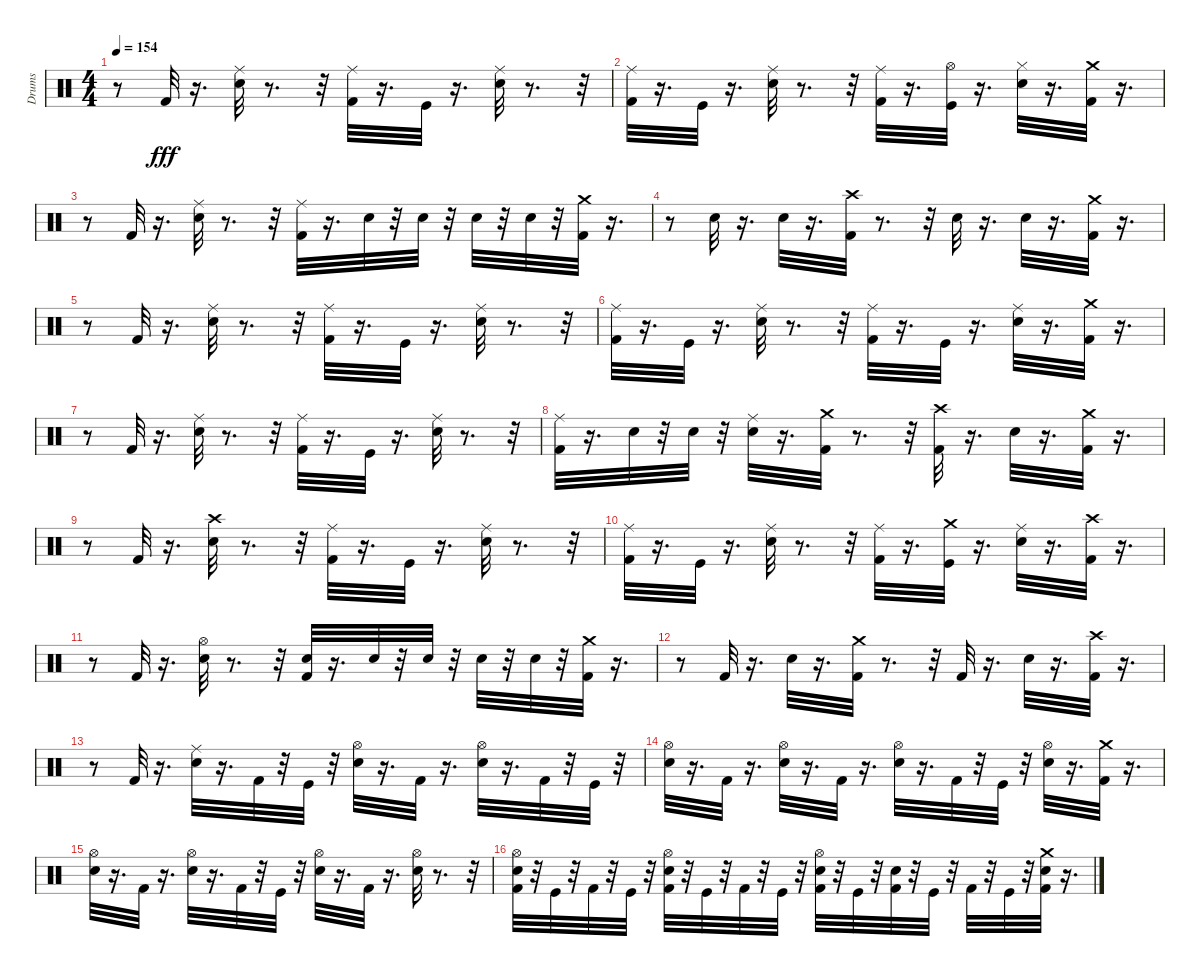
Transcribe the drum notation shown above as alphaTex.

\track ("Drums" "Drums") {instrument percussion}
\staff {score}
\articulation defaults
\ts (4 4)
\tempo 154
\clef neutral
\ks c
r.8{dy fff} "Kick (hit) 2".32 r.16{d} ("Snare (hit) 2" "Ride (middle)").32 r.8{d} r.32 ("Kick (hit) 2" "Ride (middle)").32 r.16{d} "Kick (hit)".32 r.16{d} ("Snare (hit) 2" "Ride (middle)").32 r.8{d} r.32 |
("Kick (hit) 2" "Ride (middle)").32 r.16{d} "Kick (hit)".32 r.16{d} ("Snare (hit) 2" "Ride (middle)").32 r.8{d} r.32 ("Kick (hit) 2" "Ride (middle)").32 r.16{d} ("Kick (hit)" "Hi-Hat (open)").32 r.16{d} ("Snare (hit) 2" "Hi-Hat (closed)").32 r.16{d} ("Kick (hit) 2" "Crash medium (hit)").32 r.16{d} |
r.8 "Kick (hit) 2".32 r.16{d} ("Snare (hit) 2" "Ride (middle)").32 r.8{d} r.32 ("Kick (hit) 2" "Ride (middle)").32 r.16{d} "Snare (hit) 2".32 r.32 "Snare (hit) 2".32 r.32 "Snare (hit) 2".32 r.32 "Snare (hit) 2".32 r.32 ("Kick (hit) 2" "Crash medium (hit)").32 r.16{d} |
r.8 "Snare (hit) 2".32 r.16{d} "Snare (hit) 2".32 r.16{d} ("Kick (hit) 2" "Crash high (hit)").32 r.8{d} r.32 "Snare (hit) 2".32 r.16{d} "Snare (hit) 2".32 r.16{d} ("Kick (hit) 2" "Crash medium (hit)").32 r.16{d} |
r.8 "Kick (hit) 2".32 r.16{d} ("Snare (hit) 2" "Ride (middle)").32 r.8{d} r.32 ("Kick (hit) 2" "Ride (middle)").32 r.16{d} "Kick (hit)".32 r.16{d} ("Snare (hit) 2" "Ride (middle)").32 r.8{d} r.32 |
("Kick (hit) 2" "Ride (middle)").32 r.16{d} "Kick (hit)".32 r.16{d} ("Snare (hit) 2" "Ride (middle)").32 r.8{d} r.32 ("Ride (middle)" "Kick (hit) 2").32 r.16{d} "Kick (hit)".32 r.16{d} ("Snare (hit) 2" "Ride (middle)").32 r.16{d} ("Kick (hit) 2" "Crash medium (hit)").32 r.16{d} |
r.8 "Kick (hit) 2".32 r.16{d} ("Snare (hit) 2" "Ride (middle)").32 r.8{d} r.32 ("Kick (hit) 2" "Ride (middle)").32 r.16{d} "Kick (hit)".32 r.16{d} ("Snare (hit) 2" "Ride (middle)").32 r.8{d} r.32 |
("Kick (hit) 2" "Ride (middle)").32 r.16{d} "Snare (hit) 2".32 r.32 "Snare (hit) 2".32 r.32 ("Snare (hit) 2" "Ride (middle)").32 r.16{d} ("Kick (hit) 2" "Crash medium (hit)").32 r.8{d} r.32 ("Kick (hit) 2" "Crash high (hit)").32 r.16{d} "Snare (hit) 2".32 r.16{d} ("Kick (hit) 2" "Crash medium (hit)").32 r.16{d} |
r.8 "Kick (hit) 2".32 r.16{d} ("Snare (hit) 2" "Crash high (hit)").32 r.8{d} r.32 ("Kick (hit) 2" "Ride (middle)").32 r.16{d} "Kick (hit)".32 r.16{d} ("Snare (hit) 2" "Ride (middle)").32 r.8{d} r.32 |
("Kick (hit) 2" "Ride (middle)").32 r.16{d} "Kick (hit)".32 r.16{d} ("Snare (hit) 2" "Ride (middle)").32 r.8{d} r.32 ("Kick (hit) 2" "Ride (middle)").32 r.16{d} ("Kick (hit)" "Crash medium (hit)").32 r.16{d} ("Snare (hit) 2" "Ride (middle)").32 r.16{d} ("Kick (hit) 2" "Crash high (hit)").32 r.16{d} |
r.8 "Kick (hit) 2".32 r.16{d} ("Snare (hit) 2" "Hi-Hat (open)").32 r.8{d} r.32 ("Snare (hit) 2" "Kick (hit) 2").32 r.16{d} "Snare (hit) 2".32 r.32 "Snare (hit) 2".32 r.32 "Snare (hit) 2".32 r.32 "Snare (hit) 2".32 r.32 ("Crash medium (hit)" "Kick (hit) 2").32 r.16{d} |
r.8 "Kick (hit) 2".32 r.16{d} "Snare (hit) 2".32 r.16{d} ("Crash medium (hit)" "Kick (hit) 2").32 r.8{d} r.32 "Kick (hit) 2".32 r.16{d} "Snare (hit) 2".32 r.16{d} ("Crash high (hit)" "Kick (hit) 2").32 r.16{d} |
r.8 "Kick (hit) 2".32 r.16{d} ("Snare (hit) 2" "Ride (middle)").32 r.16{d} "Kick (hit) 2".32 r.32 "Kick (hit)".32 r.32 ("Snare (hit) 2" "Hi-Hat (open)").32 r.16{d} "Kick (hit) 2".32 r.16{d} ("Snare (hit) 2" "Hi-Hat (open)").32 r.16{d} "Kick (hit) 2".32 r.32 "Kick (hit)".32 r.32 |
("Snare (hit) 2" "Hi-Hat (open)").32 r.16{d} "Kick (hit) 2".32 r.16{d} ("Snare (hit) 2" "Hi-Hat (open)").32 r.16{d} "Kick (hit) 2".32 r.16{d} ("Snare (hit) 2" "Hi-Hat (open)").32 r.16{d} "Kick (hit) 2".32 r.32 "Kick (hit)".32 r.32 ("Snare (hit) 2" "Hi-Hat (open)").32 r.16{d} ("Kick (hit) 2" "Crash medium (hit)").32 r.16{d} |
("Snare (hit) 2" "Hi-Hat (open)").32 r.16{d} "Kick (hit) 2".32 r.16{d} ("Snare (hit) 2" "Hi-Hat (open)").32 r.16{d} "Kick (hit) 2".32 r.32 "Kick (hit)".32 r.32 ("Snare (hit) 2" "Hi-Hat (open)").32 r.16{d} "Kick (hit) 2".32 r.16{d} ("Snare (hit) 2" "Hi-Hat (open)").32 r.8{d} r.32 |
("Kick (hit) 2" "Snare (hit) 2" "Hi-Hat (open)").32 r.32 "Kick (hit)".32 r.32 "Kick (hit) 2".32 r.32 "Kick (hit)".32 r.32 ("Kick (hit) 2" "Snare (hit) 2" "Hi-Hat (open)").32 r.32 "Kick (hit)".32 r.32 "Kick (hit) 2".32 r.32 "Kick (hit)".32 r.32 ("Kick (hit) 2" "Snare (hit) 2" "Hi-Hat (open)").32 r.32 "Kick (hit)".32 r.32 ("Kick (hit) 2" "Snare (hit) 2").32 r.32 "Kick (hit)".32 r.32 "Kick (hit) 2".32 r.32 "Kick (hit)".32 r.32 ("Kick (hit) 2" "Snare (hit) 2" "Crash medium (hit)").32 r.16{d}
